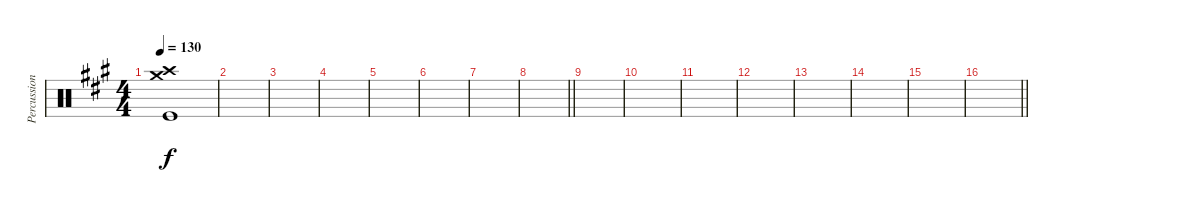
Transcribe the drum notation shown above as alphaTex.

\track ("Percussion" "Percussion") {instrument percussion}
\staff {score}
\articulation defaults
\ts (4 4)
\tempo 130
\clef neutral
\ks a
("Crash medium (hit)" "Crash high (hit)" "Kick (hit)").1{dy f} |
|
|
|
|
|
|
\barLineRight lightlight
|
|
|
|
|
|
|
|
\barLineRight lightlight
